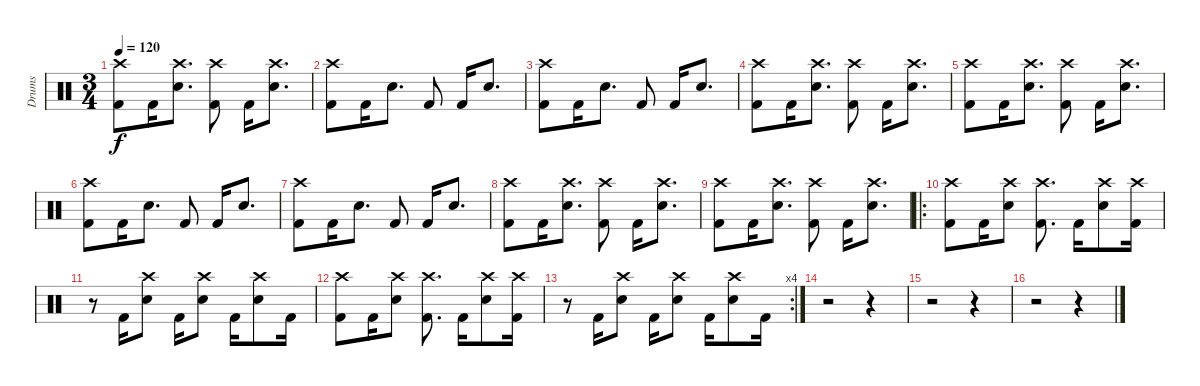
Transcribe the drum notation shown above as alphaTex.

\track ("Drums" "Drums") {instrument percussion}
\staff {score}
\articulation defaults
\ts (3 4)
\tempo 120
\clef neutral
\ks c
("Crash high (hit)" "Kick (hit) 2").8{dy f} "Kick (hit) 2".16 ("Crash high (hit)" "Snare (hit) 2").8{d} ("Crash high (hit)" "Kick (hit) 2").8 "Kick (hit) 2".16 ("Crash high (hit)" "Snare (hit) 2").8{d} |
("Crash high (hit)" "Kick (hit) 2").8 "Kick (hit) 2".16 "Snare (hit) 2".8{d} "Kick (hit) 2".8 "Kick (hit) 2".16 "Snare (hit) 2".8{d} |
("Crash high (hit)" "Kick (hit) 2").8 "Kick (hit) 2".16 "Snare (hit) 2".8{d} "Kick (hit) 2".8 "Kick (hit) 2".16 "Snare (hit) 2".8{d} |
("Crash high (hit)" "Kick (hit) 2").8 "Kick (hit) 2".16 ("Crash high (hit)" "Snare (hit) 2").8{d} ("Crash high (hit)" "Kick (hit) 2").8 "Kick (hit) 2".16 ("Crash high (hit)" "Snare (hit) 2").8{d} |
("Crash high (hit)" "Kick (hit) 2").8 "Kick (hit) 2".16 ("Crash high (hit)" "Snare (hit) 2").8{d} ("Crash high (hit)" "Kick (hit) 2").8 "Kick (hit) 2".16 ("Crash high (hit)" "Snare (hit) 2").8{d} |
("Crash high (hit)" "Kick (hit) 2").8 "Kick (hit) 2".16 "Snare (hit) 2".8{d} "Kick (hit) 2".8 "Kick (hit) 2".16 "Snare (hit) 2".8{d} |
("Crash high (hit)" "Kick (hit) 2").8 "Kick (hit) 2".16 "Snare (hit) 2".8{d} "Kick (hit) 2".8 "Kick (hit) 2".16 "Snare (hit) 2".8{d} |
("Crash high (hit)" "Kick (hit) 2").8 "Kick (hit) 2".16 ("Crash high (hit)" "Snare (hit) 2").8{d} ("Crash high (hit)" "Kick (hit) 2").8 "Kick (hit) 2".16 ("Crash high (hit)" "Snare (hit) 2").8{d} |
("Crash high (hit)" "Kick (hit) 2").8 "Kick (hit) 2".16 ("Crash high (hit)" "Snare (hit) 2").8{d} ("Crash high (hit)" "Kick (hit) 2").8 "Kick (hit) 2".16 ("Crash high (hit)" "Snare (hit) 2").8{d} |
\ro
("Crash high (hit)" "Kick (hit) 2").8 "Kick (hit) 2".16 ("Crash high (hit)" "Snare (hit) 2").8 ("Crash high (hit)" "Kick (hit) 2").8{d} "Kick (hit) 2".16 ("Crash high (hit)" "Snare (hit) 2").8 ("Crash high (hit)" "Kick (hit) 2").16 |
r.8 "Kick (hit) 2".16 ("Crash high (hit)" "Snare (hit) 2").8 "Kick (hit) 2".16 ("Crash high (hit)" "Snare (hit) 2").8 "Kick (hit) 2".16 ("Crash high (hit)" "Snare (hit) 2").8 "Kick (hit) 2".16 |
("Crash high (hit)" "Kick (hit) 2").8 "Kick (hit) 2".16 ("Crash high (hit)" "Snare (hit) 2").8 ("Crash high (hit)" "Kick (hit) 2").8{d} "Kick (hit) 2".16 ("Crash high (hit)" "Snare (hit) 2").8 ("Crash high (hit)" "Kick (hit) 2").16 |
\rc 4
r.8 "Kick (hit) 2".16 ("Crash high (hit)" "Snare (hit) 2").8 "Kick (hit) 2".16 ("Crash high (hit)" "Snare (hit) 2").8 "Kick (hit) 2".16 ("Crash high (hit)" "Snare (hit) 2").8 "Kick (hit) 2".16 |
r.2 r.4 |
r.2 r.4 |
r.2 r.4
